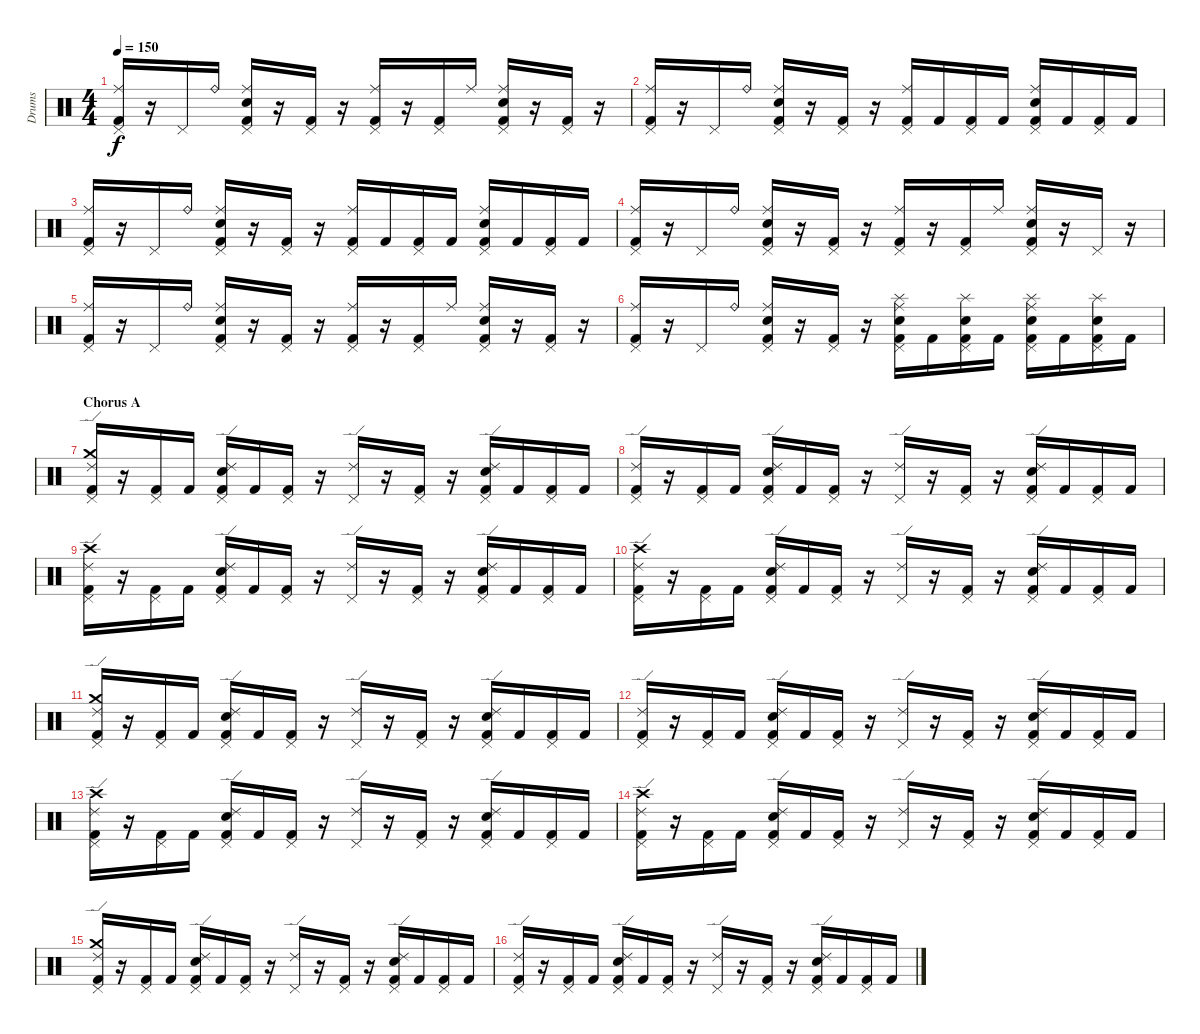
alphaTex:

\track ("Drums" "Drums") {instrument percussion}
\staff {score}
\articulation defaults
\ts (4 4)
\tempo 150
\clef neutral
\ks c
("Kick (hit) 2" "Pedal Hi-Hat (hit)" "Ride (middle)").16{dy f} r.16 "Pedal Hi-Hat (hit)".16 "Ride (bell)".16 ("Kick (hit) 2" "Pedal Hi-Hat (hit)" "Snare (hit) 2" "Ride (middle)").16 r.16 ("Kick (hit) 2" "Pedal Hi-Hat (hit)").16 r.16 ("Kick (hit) 2" "Pedal Hi-Hat (hit)" "Ride (middle)").16 r.16 ("Kick (hit) 2" "Pedal Hi-Hat (hit)").16 "Ride (middle)".16 ("Kick (hit) 2" "Pedal Hi-Hat (hit)" "Snare (hit) 2" "Ride (middle)").16 r.16 ("Kick (hit) 2" "Pedal Hi-Hat (hit)").16 r.16 |
("Kick (hit) 2" "Pedal Hi-Hat (hit)" "Ride (middle)").16 r.16 "Pedal Hi-Hat (hit)".16 "Ride (bell)".16 ("Kick (hit) 2" "Pedal Hi-Hat (hit)" "Snare (hit) 2" "Ride (middle)").16 r.16 ("Kick (hit) 2" "Pedal Hi-Hat (hit)").16 r.16 ("Kick (hit) 2" "Pedal Hi-Hat (hit)" "Ride (middle)").16 "Kick (hit) 2".16 ("Kick (hit) 2" "Pedal Hi-Hat (hit)").16 "Kick (hit) 2".16 ("Kick (hit) 2" "Pedal Hi-Hat (hit)" "Snare (hit) 2" "Ride (middle)").16 "Kick (hit) 2".16 ("Kick (hit) 2" "Pedal Hi-Hat (hit)").16 "Kick (hit) 2".16 |
("Kick (hit) 2" "Pedal Hi-Hat (hit)" "Ride (middle)").16 r.16 "Pedal Hi-Hat (hit)".16 "Ride (bell)".16 ("Kick (hit) 2" "Pedal Hi-Hat (hit)" "Snare (hit) 2" "Ride (middle)").16 r.16 ("Kick (hit) 2" "Pedal Hi-Hat (hit)").16 r.16 ("Kick (hit) 2" "Pedal Hi-Hat (hit)" "Ride (middle)").16 "Kick (hit) 2".16 ("Kick (hit) 2" "Pedal Hi-Hat (hit)").16 "Kick (hit) 2".16 ("Kick (hit) 2" "Pedal Hi-Hat (hit)" "Snare (hit) 2" "Ride (middle)").16 "Kick (hit) 2".16 ("Kick (hit) 2" "Pedal Hi-Hat (hit)").16 "Kick (hit) 2".16 |
("Kick (hit) 2" "Pedal Hi-Hat (hit)" "Ride (middle)").16 r.16 "Pedal Hi-Hat (hit)".16 "Ride (bell)".16 ("Kick (hit) 2" "Pedal Hi-Hat (hit)" "Snare (hit) 2" "Ride (middle)").16 r.16 ("Kick (hit) 2" "Pedal Hi-Hat (hit)").16 r.16 ("Kick (hit) 2" "Pedal Hi-Hat (hit)" "Ride (middle)").16 r.16 ("Kick (hit) 2" "Pedal Hi-Hat (hit)").16 "Ride (middle)".16 ("Kick (hit) 2" "Pedal Hi-Hat (hit)" "Snare (hit) 2" "Ride (middle)").16 r.16 "Pedal Hi-Hat (hit)".16 r.16 |
("Kick (hit) 2" "Pedal Hi-Hat (hit)" "Ride (middle)").16 r.16 "Pedal Hi-Hat (hit)".16 "Ride (bell)".16 ("Kick (hit) 2" "Pedal Hi-Hat (hit)" "Snare (hit) 2" "Ride (middle)").16 r.16 ("Kick (hit) 2" "Pedal Hi-Hat (hit)").16 r.16 ("Kick (hit) 2" "Pedal Hi-Hat (hit)" "Ride (middle)").16 r.16 ("Kick (hit) 2" "Pedal Hi-Hat (hit)").16 "Ride (middle)".16 ("Kick (hit) 2" "Pedal Hi-Hat (hit)" "Snare (hit) 2" "Ride (middle)").16 r.16 ("Kick (hit) 2" "Pedal Hi-Hat (hit)").16 r.16 |
("Kick (hit) 2" "Pedal Hi-Hat (hit)" "Ride (middle)").16 r.16 "Pedal Hi-Hat (hit)".16 "Ride (bell)".16 ("Kick (hit) 2" "Pedal Hi-Hat (hit)" "Snare (hit) 2" "Ride (middle)").16 r.16 ("Kick (hit) 2" "Pedal Hi-Hat (hit)").16 r.16 ("Kick (hit) 2" "Splash (hit)" "Pedal Hi-Hat (hit)" "Snare (hit) 2" "Ride (middle)").16 "Kick (hit) 2".16 ("Kick (hit) 2" "Splash (hit)" "Pedal Hi-Hat (hit)" "Snare (hit) 2").16 "Kick (hit) 2".16 ("Kick (hit) 2" "Splash (hit)" "Pedal Hi-Hat (hit)" "Snare (hit) 2" "Ride (middle)").16 "Kick (hit) 2".16 ("Kick (hit) 2" "Splash (hit)" "Pedal Hi-Hat (hit)" "Snare (hit) 2").16 "Kick (hit) 2".16 |
\section ("" "Chorus A")
("Kick (hit) 2" "Pedal Hi-Hat (hit)" "Crash medium (hit)" "Ride (edge) 2").16 r.16 ("Kick (hit) 2" "Pedal Hi-Hat (hit)").16 "Kick (hit) 2".16 ("Kick (hit) 2" "Snare (hit) 2" "Pedal Hi-Hat (hit)" "Ride (edge) 2").16 "Kick (hit) 2".16 ("Kick (hit) 2" "Pedal Hi-Hat (hit)").16 r.16 ("Pedal Hi-Hat (hit)" "Ride (edge) 2").16 r.16 ("Kick (hit) 2" "Pedal Hi-Hat (hit)").16 r.16 ("Kick (hit) 2" "Snare (hit) 2" "Pedal Hi-Hat (hit)" "Ride (edge) 2").16 "Kick (hit) 2".16 ("Kick (hit) 2" "Pedal Hi-Hat (hit)").16 "Kick (hit) 2".16 |
("Kick (hit) 2" "Pedal Hi-Hat (hit)" "Ride (edge) 2").16 r.16 ("Kick (hit) 2" "Pedal Hi-Hat (hit)").16 "Kick (hit) 2".16 ("Kick (hit) 2" "Snare (hit) 2" "Pedal Hi-Hat (hit)" "Ride (edge) 2").16 "Kick (hit) 2".16 ("Kick (hit) 2" "Pedal Hi-Hat (hit)").16 r.16 ("Pedal Hi-Hat (hit)" "Ride (edge) 2").16 r.16 ("Kick (hit) 2" "Pedal Hi-Hat (hit)").16 r.16 ("Kick (hit) 2" "Snare (hit) 2" "Pedal Hi-Hat (hit)" "Ride (edge) 2").16 "Kick (hit) 2".16 ("Kick (hit) 2" "Pedal Hi-Hat (hit)").16 "Kick (hit) 2".16 |
("Kick (hit) 2" "Pedal Hi-Hat (hit)" "Crash high (hit)" "Ride (edge) 2").16 r.16 ("Kick (hit) 2" "Pedal Hi-Hat (hit)").16 "Kick (hit) 2".16 ("Kick (hit) 2" "Snare (hit) 2" "Pedal Hi-Hat (hit)" "Ride (edge) 2").16 "Kick (hit) 2".16 ("Kick (hit) 2" "Pedal Hi-Hat (hit)").16 r.16 ("Pedal Hi-Hat (hit)" "Ride (edge) 2").16 r.16 ("Kick (hit) 2" "Pedal Hi-Hat (hit)").16 r.16 ("Kick (hit) 2" "Snare (hit) 2" "Pedal Hi-Hat (hit)" "Ride (edge) 2").16 "Kick (hit) 2".16 ("Kick (hit) 2" "Pedal Hi-Hat (hit)").16 "Kick (hit) 2".16 |
("Kick (hit) 2" "Pedal Hi-Hat (hit)" "Crash high (hit)" "Ride (edge) 2").16 r.16 ("Kick (hit) 2" "Pedal Hi-Hat (hit)").16 "Kick (hit) 2".16 ("Kick (hit) 2" "Snare (hit) 2" "Pedal Hi-Hat (hit)" "Ride (edge) 2").16 "Kick (hit) 2".16 ("Kick (hit) 2" "Pedal Hi-Hat (hit)").16 r.16 ("Pedal Hi-Hat (hit)" "Ride (edge) 2").16 r.16 ("Kick (hit) 2" "Pedal Hi-Hat (hit)").16 r.16 ("Kick (hit) 2" "Snare (hit) 2" "Pedal Hi-Hat (hit)" "Ride (edge) 2").16 "Kick (hit) 2".16 ("Kick (hit) 2" "Pedal Hi-Hat (hit)").16 "Kick (hit) 2".16 |
("Kick (hit) 2" "Pedal Hi-Hat (hit)" "Crash medium (hit)" "Ride (edge) 2").16 r.16 ("Kick (hit) 2" "Pedal Hi-Hat (hit)").16 "Kick (hit) 2".16 ("Kick (hit) 2" "Snare (hit) 2" "Pedal Hi-Hat (hit)" "Ride (edge) 2").16 "Kick (hit) 2".16 ("Kick (hit) 2" "Pedal Hi-Hat (hit)").16 r.16 ("Pedal Hi-Hat (hit)" "Ride (edge) 2").16 r.16 ("Kick (hit) 2" "Pedal Hi-Hat (hit)").16 r.16 ("Kick (hit) 2" "Snare (hit) 2" "Pedal Hi-Hat (hit)" "Ride (edge) 2").16 "Kick (hit) 2".16 ("Kick (hit) 2" "Pedal Hi-Hat (hit)").16 "Kick (hit) 2".16 |
("Kick (hit) 2" "Pedal Hi-Hat (hit)" "Ride (edge) 2").16 r.16 ("Kick (hit) 2" "Pedal Hi-Hat (hit)").16 "Kick (hit) 2".16 ("Kick (hit) 2" "Snare (hit) 2" "Pedal Hi-Hat (hit)" "Ride (edge) 2").16 "Kick (hit) 2".16 ("Kick (hit) 2" "Pedal Hi-Hat (hit)").16 r.16 ("Pedal Hi-Hat (hit)" "Ride (edge) 2").16 r.16 ("Kick (hit) 2" "Pedal Hi-Hat (hit)").16 r.16 ("Kick (hit) 2" "Snare (hit) 2" "Pedal Hi-Hat (hit)" "Ride (edge) 2").16 "Kick (hit) 2".16 ("Kick (hit) 2" "Pedal Hi-Hat (hit)").16 "Kick (hit) 2".16 |
("Kick (hit) 2" "Pedal Hi-Hat (hit)" "Crash high (hit)" "Ride (edge) 2").16 r.16 ("Kick (hit) 2" "Pedal Hi-Hat (hit)").16 "Kick (hit) 2".16 ("Kick (hit) 2" "Snare (hit) 2" "Pedal Hi-Hat (hit)" "Ride (edge) 2").16 "Kick (hit) 2".16 ("Kick (hit) 2" "Pedal Hi-Hat (hit)").16 r.16 ("Pedal Hi-Hat (hit)" "Ride (edge) 2").16 r.16 ("Kick (hit) 2" "Pedal Hi-Hat (hit)").16 r.16 ("Kick (hit) 2" "Snare (hit) 2" "Pedal Hi-Hat (hit)" "Ride (edge) 2").16 "Kick (hit) 2".16 ("Kick (hit) 2" "Pedal Hi-Hat (hit)").16 "Kick (hit) 2".16 |
("Kick (hit) 2" "Pedal Hi-Hat (hit)" "Crash high (hit)" "Ride (edge) 2").16 r.16 ("Kick (hit) 2" "Pedal Hi-Hat (hit)").16 "Kick (hit) 2".16 ("Kick (hit) 2" "Snare (hit) 2" "Pedal Hi-Hat (hit)" "Ride (edge) 2").16 "Kick (hit) 2".16 ("Kick (hit) 2" "Pedal Hi-Hat (hit)").16 r.16 ("Pedal Hi-Hat (hit)" "Ride (edge) 2").16 r.16 ("Kick (hit) 2" "Pedal Hi-Hat (hit)").16 r.16 ("Kick (hit) 2" "Snare (hit) 2" "Pedal Hi-Hat (hit)" "Ride (edge) 2").16 "Kick (hit) 2".16 ("Kick (hit) 2" "Pedal Hi-Hat (hit)").16 "Kick (hit) 2".16 |
("Kick (hit) 2" "Pedal Hi-Hat (hit)" "Crash medium (hit)" "Ride (edge) 2").16 r.16 ("Kick (hit) 2" "Pedal Hi-Hat (hit)").16 "Kick (hit) 2".16 ("Kick (hit) 2" "Snare (hit) 2" "Pedal Hi-Hat (hit)" "Ride (edge) 2").16 "Kick (hit) 2".16 ("Kick (hit) 2" "Pedal Hi-Hat (hit)").16 r.16 ("Pedal Hi-Hat (hit)" "Ride (edge) 2").16 r.16 ("Kick (hit) 2" "Pedal Hi-Hat (hit)").16 r.16 ("Kick (hit) 2" "Snare (hit) 2" "Pedal Hi-Hat (hit)" "Ride (edge) 2").16 "Kick (hit) 2".16 ("Kick (hit) 2" "Pedal Hi-Hat (hit)").16 "Kick (hit) 2".16 |
("Kick (hit) 2" "Pedal Hi-Hat (hit)" "Ride (edge) 2").16 r.16 ("Kick (hit) 2" "Pedal Hi-Hat (hit)").16 "Kick (hit) 2".16 ("Kick (hit) 2" "Snare (hit) 2" "Pedal Hi-Hat (hit)" "Ride (edge) 2").16 "Kick (hit) 2".16 ("Kick (hit) 2" "Pedal Hi-Hat (hit)").16 r.16 ("Pedal Hi-Hat (hit)" "Ride (edge) 2").16 r.16 ("Kick (hit) 2" "Pedal Hi-Hat (hit)").16 r.16 ("Kick (hit) 2" "Snare (hit) 2" "Pedal Hi-Hat (hit)" "Ride (edge) 2").16 "Kick (hit) 2".16 ("Kick (hit) 2" "Pedal Hi-Hat (hit)").16 "Kick (hit) 2".16
